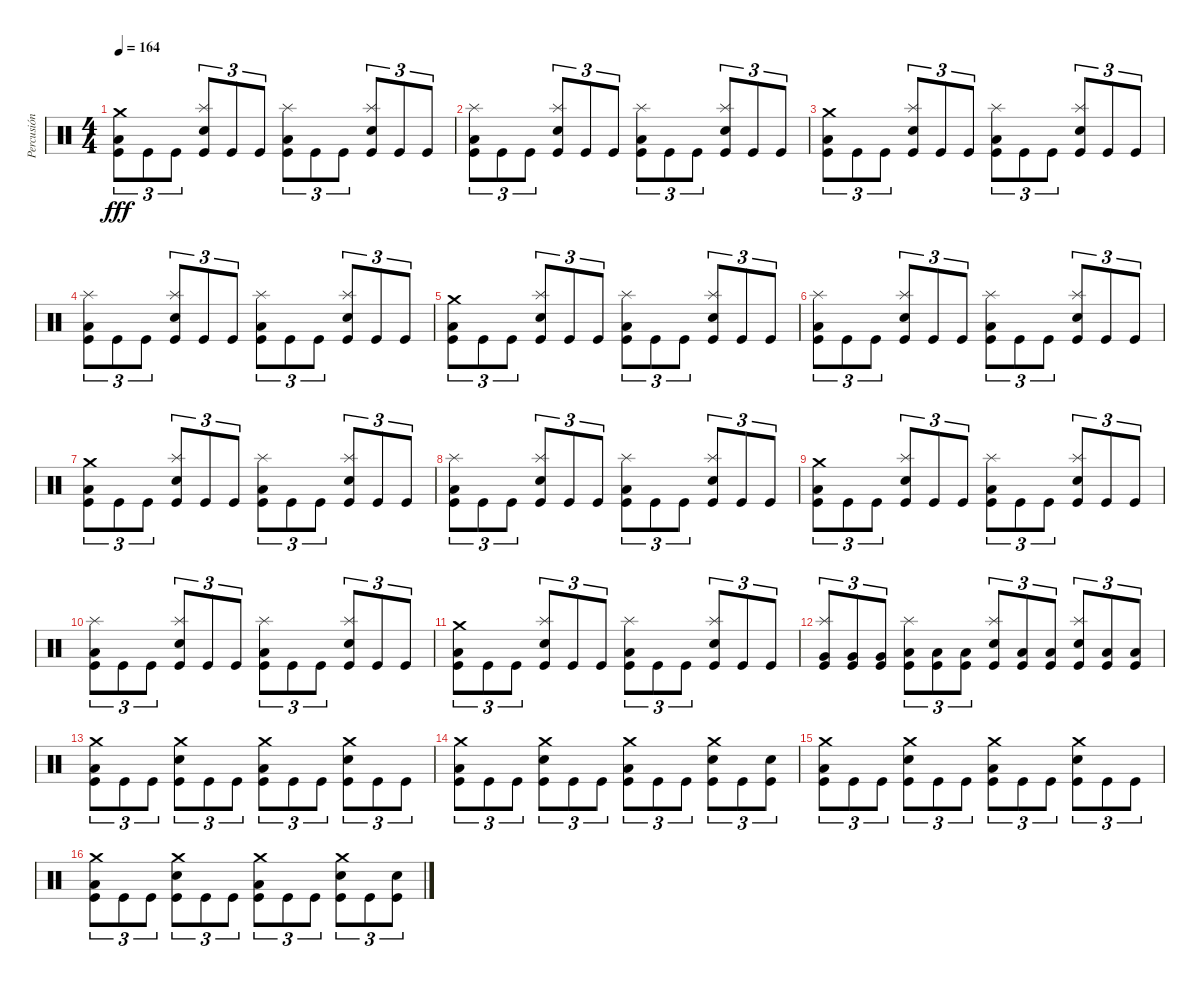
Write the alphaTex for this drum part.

\track ("Percusión" "Percusión") {instrument percussion}
\staff {score}
\articulation defaults
\ts (4 4)
\tempo 164
\clef neutral
\ks c
("Crash medium (hit)" "Low Floor Tom (hit)" "Kick (hit)").8{tu (3 2) dy fff} "Kick (hit)".8{tu (3 2)} "Kick (hit)".8{tu (3 2)} ("Splash (hit)" "Snare (hit) 2" "Kick (hit)").8{tu (3 2)} "Kick (hit)".8{tu (3 2)} "Kick (hit)".8{tu (3 2)} ("Splash (hit)" "Low Floor Tom (hit)" "Kick (hit)").8{tu (3 2)} "Kick (hit)".8{tu (3 2)} "Kick (hit)".8{tu (3 2)} ("Splash (hit)" "Snare (hit) 2" "Kick (hit)").8{tu (3 2)} "Kick (hit)".8{tu (3 2)} "Kick (hit)".8{tu (3 2)} |
("Splash (hit)" "Low Floor Tom (hit)" "Kick (hit)").8{tu (3 2)} "Kick (hit)".8{tu (3 2)} "Kick (hit)".8{tu (3 2)} ("Splash (hit)" "Snare (hit) 2" "Kick (hit)").8{tu (3 2)} "Kick (hit)".8{tu (3 2)} "Kick (hit)".8{tu (3 2)} ("Splash (hit)" "Low Floor Tom (hit)" "Kick (hit)").8{tu (3 2)} "Kick (hit)".8{tu (3 2)} "Kick (hit)".8{tu (3 2)} ("Splash (hit)" "Snare (hit) 2" "Kick (hit)").8{tu (3 2)} "Kick (hit)".8{tu (3 2)} "Kick (hit)".8{tu (3 2)} |
("Crash medium (hit)" "Low Floor Tom (hit)" "Kick (hit)").8{tu (3 2)} "Kick (hit)".8{tu (3 2)} "Kick (hit)".8{tu (3 2)} ("Splash (hit)" "Snare (hit) 2" "Kick (hit)").8{tu (3 2)} "Kick (hit)".8{tu (3 2)} "Kick (hit)".8{tu (3 2)} ("Splash (hit)" "Low Floor Tom (hit)" "Kick (hit)").8{tu (3 2)} "Kick (hit)".8{tu (3 2)} "Kick (hit)".8{tu (3 2)} ("Splash (hit)" "Snare (hit) 2" "Kick (hit)").8{tu (3 2)} "Kick (hit)".8{tu (3 2)} "Kick (hit)".8{tu (3 2)} |
("Splash (hit)" "Low Floor Tom (hit)" "Kick (hit)").8{tu (3 2)} "Kick (hit)".8{tu (3 2)} "Kick (hit)".8{tu (3 2)} ("Splash (hit)" "Snare (hit) 2" "Kick (hit)").8{tu (3 2)} "Kick (hit)".8{tu (3 2)} "Kick (hit)".8{tu (3 2)} ("Splash (hit)" "Low Floor Tom (hit)" "Kick (hit)").8{tu (3 2)} "Kick (hit)".8{tu (3 2)} "Kick (hit)".8{tu (3 2)} ("Splash (hit)" "Snare (hit) 2" "Kick (hit)").8{tu (3 2)} "Kick (hit)".8{tu (3 2)} "Kick (hit)".8{tu (3 2)} |
("Crash medium (hit)" "Low Floor Tom (hit)" "Kick (hit)").8{tu (3 2)} "Kick (hit)".8{tu (3 2)} "Kick (hit)".8{tu (3 2)} ("Splash (hit)" "Snare (hit) 2" "Kick (hit)").8{tu (3 2)} "Kick (hit)".8{tu (3 2)} "Kick (hit)".8{tu (3 2)} ("Splash (hit)" "Low Floor Tom (hit)" "Kick (hit)").8{tu (3 2)} "Kick (hit)".8{tu (3 2)} "Kick (hit)".8{tu (3 2)} ("Splash (hit)" "Snare (hit) 2" "Kick (hit)").8{tu (3 2)} "Kick (hit)".8{tu (3 2)} "Kick (hit)".8{tu (3 2)} |
("Splash (hit)" "Low Floor Tom (hit)" "Kick (hit)").8{tu (3 2)} "Kick (hit)".8{tu (3 2)} "Kick (hit)".8{tu (3 2)} ("Splash (hit)" "Snare (hit) 2" "Kick (hit)").8{tu (3 2)} "Kick (hit)".8{tu (3 2)} "Kick (hit)".8{tu (3 2)} ("Splash (hit)" "Low Floor Tom (hit)" "Kick (hit)").8{tu (3 2)} "Kick (hit)".8{tu (3 2)} "Kick (hit)".8{tu (3 2)} ("Splash (hit)" "Snare (hit) 2" "Kick (hit)").8{tu (3 2)} "Kick (hit)".8{tu (3 2)} "Kick (hit)".8{tu (3 2)} |
("Crash medium (hit)" "Low Floor Tom (hit)" "Kick (hit)").8{tu (3 2)} "Kick (hit)".8{tu (3 2)} "Kick (hit)".8{tu (3 2)} ("Splash (hit)" "Snare (hit) 2" "Kick (hit)").8{tu (3 2)} "Kick (hit)".8{tu (3 2)} "Kick (hit)".8{tu (3 2)} ("Splash (hit)" "Low Floor Tom (hit)" "Kick (hit)").8{tu (3 2)} "Kick (hit)".8{tu (3 2)} "Kick (hit)".8{tu (3 2)} ("Splash (hit)" "Snare (hit) 2" "Kick (hit)").8{tu (3 2)} "Kick (hit)".8{tu (3 2)} "Kick (hit)".8{tu (3 2)} |
("Splash (hit)" "Low Floor Tom (hit)" "Kick (hit)").8{tu (3 2)} "Kick (hit)".8{tu (3 2)} "Kick (hit)".8{tu (3 2)} ("Splash (hit)" "Snare (hit) 2" "Kick (hit)").8{tu (3 2)} "Kick (hit)".8{tu (3 2)} "Kick (hit)".8{tu (3 2)} ("Splash (hit)" "Low Floor Tom (hit)" "Kick (hit)").8{tu (3 2)} "Kick (hit)".8{tu (3 2)} "Kick (hit)".8{tu (3 2)} ("Splash (hit)" "Snare (hit) 2" "Kick (hit)").8{tu (3 2)} "Kick (hit)".8{tu (3 2)} "Kick (hit)".8{tu (3 2)} |
("Crash medium (hit)" "Low Floor Tom (hit)" "Kick (hit)").8{tu (3 2)} "Kick (hit)".8{tu (3 2)} "Kick (hit)".8{tu (3 2)} ("Splash (hit)" "Snare (hit) 2" "Kick (hit)").8{tu (3 2)} "Kick (hit)".8{tu (3 2)} "Kick (hit)".8{tu (3 2)} ("Splash (hit)" "Low Floor Tom (hit)" "Kick (hit)").8{tu (3 2)} "Kick (hit)".8{tu (3 2)} "Kick (hit)".8{tu (3 2)} ("Splash (hit)" "Snare (hit) 2" "Kick (hit)").8{tu (3 2)} "Kick (hit)".8{tu (3 2)} "Kick (hit)".8{tu (3 2)} |
("Splash (hit)" "Low Floor Tom (hit)" "Kick (hit)").8{tu (3 2)} "Kick (hit)".8{tu (3 2)} "Kick (hit)".8{tu (3 2)} ("Splash (hit)" "Snare (hit) 2" "Kick (hit)").8{tu (3 2)} "Kick (hit)".8{tu (3 2)} "Kick (hit)".8{tu (3 2)} ("Splash (hit)" "Low Floor Tom (hit)" "Kick (hit)").8{tu (3 2)} "Kick (hit)".8{tu (3 2)} "Kick (hit)".8{tu (3 2)} ("Splash (hit)" "Snare (hit) 2" "Kick (hit)").8{tu (3 2)} "Kick (hit)".8{tu (3 2)} "Kick (hit)".8{tu (3 2)} |
("Crash medium (hit)" "Low Floor Tom (hit)" "Kick (hit)").8{tu (3 2)} "Kick (hit)".8{tu (3 2)} "Kick (hit)".8{tu (3 2)} ("Splash (hit)" "Snare (hit) 2" "Kick (hit)").8{tu (3 2)} "Kick (hit)".8{tu (3 2)} "Kick (hit)".8{tu (3 2)} ("Splash (hit)" "Low Floor Tom (hit)" "Kick (hit)").8{tu (3 2)} "Kick (hit)".8{tu (3 2)} "Kick (hit)".8{tu (3 2)} ("Splash (hit)" "Snare (hit) 2" "Kick (hit)").8{tu (3 2)} "Kick (hit)".8{tu (3 2)} "Kick (hit)".8{tu (3 2)} |
("Splash (hit)" "Very Low Tom (hit)" "Kick (hit)").8{tu (3 2)} ("Very Low Tom (hit)" "Kick (hit)").8{tu (3 2)} ("Very Low Tom (hit)" "Kick (hit)").8{tu (3 2)} ("Splash (hit)" "Low Floor Tom (hit)" "Kick (hit)").8{tu (3 2)} ("Low Floor Tom (hit)" "Kick (hit)").8{tu (3 2)} ("Low Floor Tom (hit)" "Kick (hit)").8{tu (3 2)} ("Splash (hit)" "Snare (hit) 2" "Kick (hit)").8{tu (3 2)} ("Low Floor Tom (hit)" "Kick (hit)").8{tu (3 2)} ("Low Floor Tom (hit)" "Kick (hit)").8{tu (3 2)} ("Splash (hit)" "Snare (hit) 2" "Kick (hit)").8{tu (3 2)} ("Low Floor Tom (hit)" "Kick (hit)").8{tu (3 2)} ("Low Floor Tom (hit)" "Kick (hit)").8{tu (3 2)} |
("Crash medium (hit)" "Low Floor Tom (hit)" "Kick (hit)").8{tu (3 2)} "Kick (hit)".8{tu (3 2)} "Kick (hit)".8{tu (3 2)} ("Crash medium (hit)" "Snare (hit) 2" "Kick (hit)").8{tu (3 2)} "Kick (hit)".8{tu (3 2)} "Kick (hit)".8{tu (3 2)} ("Crash medium (hit)" "Low Floor Tom (hit)" "Kick (hit)").8{tu (3 2)} "Kick (hit)".8{tu (3 2)} "Kick (hit)".8{tu (3 2)} ("Crash medium (hit)" "Snare (hit) 2" "Kick (hit)").8{tu (3 2)} "Kick (hit)".8{tu (3 2)} "Kick (hit)".8{tu (3 2)} |
("Crash medium (hit)" "Low Floor Tom (hit)" "Kick (hit)").8{tu (3 2)} "Kick (hit)".8{tu (3 2)} "Kick (hit)".8{tu (3 2)} ("Crash medium (hit)" "Snare (hit) 2" "Kick (hit)").8{tu (3 2)} "Kick (hit)".8{tu (3 2)} "Kick (hit)".8{tu (3 2)} ("Crash medium (hit)" "Low Floor Tom (hit)" "Kick (hit)").8{tu (3 2)} "Kick (hit)".8{tu (3 2)} "Kick (hit)".8{tu (3 2)} ("Crash medium (hit)" "Snare (hit) 2" "Kick (hit)").8{tu (3 2)} "Kick (hit)".8{tu (3 2)} ("Snare (hit) 2" "Kick (hit)").8{tu (3 2)} |
("Crash medium (hit)" "Low Floor Tom (hit)" "Kick (hit)").8{tu (3 2)} "Kick (hit)".8{tu (3 2)} "Kick (hit)".8{tu (3 2)} ("Crash medium (hit)" "Snare (hit) 2" "Kick (hit)").8{tu (3 2)} "Kick (hit)".8{tu (3 2)} "Kick (hit)".8{tu (3 2)} ("Crash medium (hit)" "Low Floor Tom (hit)" "Kick (hit)").8{tu (3 2)} "Kick (hit)".8{tu (3 2)} "Kick (hit)".8{tu (3 2)} ("Crash medium (hit)" "Snare (hit) 2" "Kick (hit)").8{tu (3 2)} "Kick (hit)".8{tu (3 2)} "Kick (hit)".8{tu (3 2)} |
("Crash medium (hit)" "Low Floor Tom (hit)" "Kick (hit)").8{tu (3 2)} "Kick (hit)".8{tu (3 2)} "Kick (hit)".8{tu (3 2)} ("Crash medium (hit)" "Snare (hit) 2" "Kick (hit)").8{tu (3 2)} "Kick (hit)".8{tu (3 2)} "Kick (hit)".8{tu (3 2)} ("Crash medium (hit)" "Low Floor Tom (hit)" "Kick (hit)").8{tu (3 2)} "Kick (hit)".8{tu (3 2)} "Kick (hit)".8{tu (3 2)} ("Crash medium (hit)" "Snare (hit) 2" "Kick (hit)").8{tu (3 2)} "Kick (hit)".8{tu (3 2)} ("Snare (hit) 2" "Kick (hit)").8{tu (3 2)}
